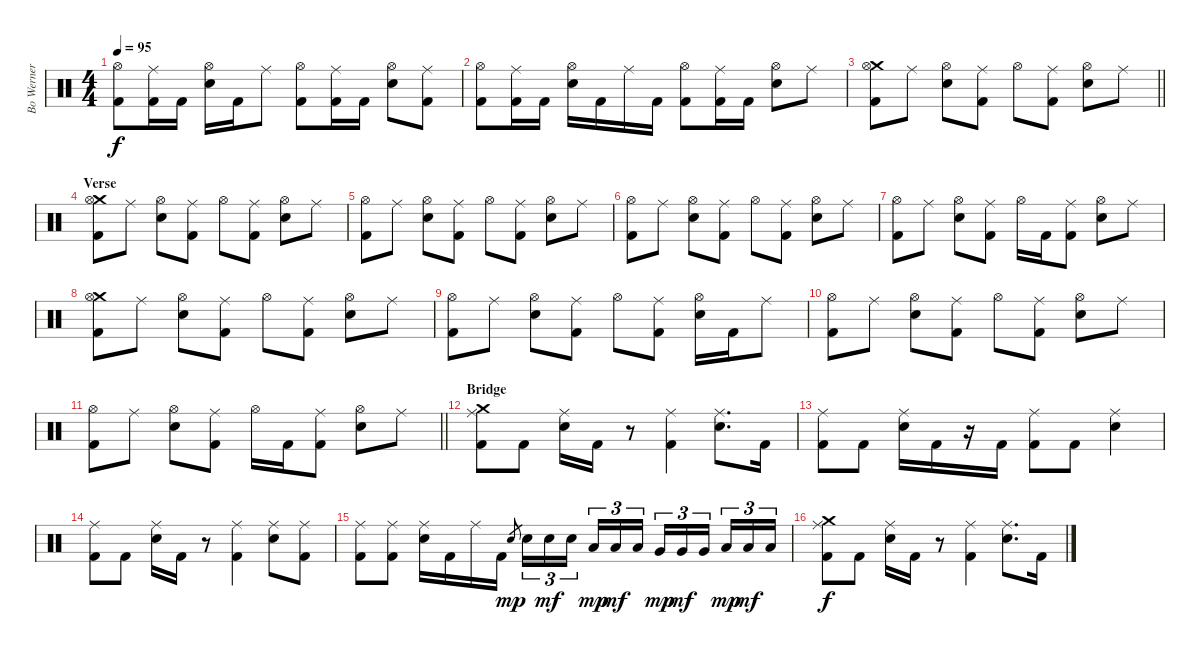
\track ("Bo Werner" "Bo Werner") {instrument percussion}
\staff {score}
\articulation defaults
\ts (4 4)
\tempo 95
\clef neutral
\ks c
("Hi-Hat (open)" "Kick (hit) 2").8{dy f} ("Ride (middle)" "Kick (hit) 2").16 "Kick (hit) 2".16 ("Hi-Hat (open)" "Snare (hit) 2").16 "Kick (hit) 2".16 "Ride (middle)".8 ("Hi-Hat (open)" "Kick (hit) 2").8 ("Ride (middle)" "Kick (hit) 2").16 "Kick (hit) 2".16 ("Hi-Hat (open)" "Snare (hit) 2").8 ("Ride (middle)" "Kick (hit) 2").8 |
("Hi-Hat (open)" "Kick (hit) 2").8 ("Ride (middle)" "Kick (hit) 2").16 "Kick (hit) 2".16 ("Hi-Hat (open)" "Snare (hit) 2").16 "Kick (hit) 2".16 "Ride (middle)".16 "Kick (hit) 2".16 ("Hi-Hat (open)" "Kick (hit) 2").8 ("Ride (middle)" "Kick (hit) 2").16 "Kick (hit) 2".16 ("Hi-Hat (open)" "Snare (hit) 2").8 "Ride (middle)".8 |
\barLineRight lightlight
("Crash medium (hit)" "Hi-Hat (open)" "Kick (hit) 2").8 "Ride (middle)".8 ("Hi-Hat (open)" "Snare (hit) 2").8 ("Ride (middle)" "Kick (hit) 2").8 "Hi-Hat (open)".8 ("Ride (middle)" "Kick (hit) 2").8 ("Hi-Hat (open)" "Snare (hit) 2").8 "Ride (middle)".8 |
\section ("" "Verse")
("Crash medium (hit)" "Hi-Hat (open)" "Kick (hit) 2").8 "Ride (middle)".8 ("Hi-Hat (open)" "Snare (hit) 2").8 ("Ride (middle)" "Kick (hit) 2").8 "Hi-Hat (open)".8 ("Ride (middle)" "Kick (hit) 2").8 ("Hi-Hat (open)" "Snare (hit) 2").8 "Ride (middle)".8 |
("Hi-Hat (open)" "Kick (hit) 2").8 "Ride (middle)".8 ("Hi-Hat (open)" "Snare (hit) 2").8 ("Ride (middle)" "Kick (hit) 2").8 "Hi-Hat (open)".8 ("Ride (middle)" "Kick (hit) 2").8 ("Hi-Hat (open)" "Snare (hit) 2").8 "Ride (middle)".8 |
("Hi-Hat (open)" "Kick (hit) 2").8 "Ride (middle)".8 ("Hi-Hat (open)" "Snare (hit) 2").8 ("Ride (middle)" "Kick (hit) 2").8 "Hi-Hat (open)".8 ("Ride (middle)" "Kick (hit) 2").8 ("Hi-Hat (open)" "Snare (hit) 2").8 "Ride (middle)".8 |
("Hi-Hat (open)" "Kick (hit) 2").8 "Ride (middle)".8 ("Hi-Hat (open)" "Snare (hit) 2").8 ("Ride (middle)" "Kick (hit) 2").8 "Hi-Hat (open)".16 "Kick (hit) 2".16 ("Ride (middle)" "Kick (hit) 2").8 ("Hi-Hat (open)" "Snare (hit) 2").8 "Ride (middle)".8 |
("Crash medium (hit)" "Hi-Hat (open)" "Kick (hit) 2").8 "Ride (middle)".8 ("Hi-Hat (open)" "Snare (hit) 2").8 ("Ride (middle)" "Kick (hit) 2").8 "Hi-Hat (open)".8 ("Ride (middle)" "Kick (hit) 2").8 ("Hi-Hat (open)" "Snare (hit) 2").8 "Ride (middle)".8 |
("Hi-Hat (open)" "Kick (hit) 2").8 "Ride (middle)".8 ("Hi-Hat (open)" "Snare (hit) 2").8 ("Ride (middle)" "Kick (hit) 2").8 "Hi-Hat (open)".8 ("Ride (middle)" "Kick (hit) 2").8 ("Hi-Hat (open)" "Snare (hit) 2").16 "Kick (hit) 2".16 "Ride (middle)".8 |
("Hi-Hat (open)" "Kick (hit) 2").8 "Ride (middle)".8 ("Hi-Hat (open)" "Snare (hit) 2").8 ("Ride (middle)" "Kick (hit) 2").8 "Hi-Hat (open)".8 ("Ride (middle)" "Kick (hit) 2").8 ("Hi-Hat (open)" "Snare (hit) 2").8 "Ride (middle)".8 |
\barLineRight lightlight
("Hi-Hat (open)" "Kick (hit) 2").8 "Ride (middle)".8 ("Hi-Hat (open)" "Snare (hit) 2").8 ("Ride (middle)" "Kick (hit) 2").8 "Hi-Hat (open)".16 "Kick (hit) 2".16 ("Ride (middle)" "Kick (hit) 2").8 ("Hi-Hat (open)" "Snare (hit) 2").8 "Ride (middle)".8 |
\section ("" "Bridge")
("Crash medium (hit)" "Ride (middle)" "Kick (hit) 2").8 "Kick (hit) 2".8 ("Ride (middle)" "Snare (hit) 2").16 "Kick (hit) 2".16 r.8 ("Ride (middle)" "Kick (hit) 2").4 ("Ride (middle)" "Snare (hit) 2").8{d} "Kick (hit) 2".16 |
("Ride (middle)" "Kick (hit) 2").8 "Kick (hit) 2".8 ("Ride (middle)" "Snare (hit) 2").16 "Kick (hit) 2".16 r.16 "Kick (hit) 2".16 ("Ride (middle)" "Kick (hit) 2").8 "Kick (hit) 2".8 ("Ride (middle)" "Snare (hit) 2").4 |
("Ride (middle)" "Kick (hit) 2").8 "Kick (hit) 2".8 ("Ride (middle)" "Snare (hit) 2").16 "Kick (hit) 2".16 r.8 ("Ride (middle)" "Kick (hit) 2").4 ("Ride (middle)" "Snare (hit) 2").8 ("Ride (middle)" "Kick (hit) 2").8 |
("Ride (middle)" "Kick (hit) 2").8 ("Ride (middle)" "Kick (hit) 2").8 ("Ride (middle)" "Snare (hit) 2").16 "Kick (hit) 2".16 "Ride (middle)".16 "Kick (hit) 2".16 "Snare (hit) 2".8{gr dy mp} "Snare (hit) 2".16{tu (3 2)} "Snare (hit) 2".16{tu (3 2) dy mf} "Snare (hit) 2".16{tu (3 2) beam splitsecondary} "Low Tom (hit)".16{tu (3 2) dy mp} "Low Tom (hit)".16{tu (3 2) dy mf} "Low Tom (hit)".16{tu (3 2)} "Very Low Tom (hit)".16{tu (3 2) dy mp} "Very Low Tom (hit)".16{tu (3 2) dy mf} "Very Low Tom (hit)".16{tu (3 2) beam splitsecondary} "Low Floor Tom (hit)".16{tu (3 2) dy mp} "Low Floor Tom (hit)".16{tu (3 2) dy mf} "Low Floor Tom (hit)".16{tu (3 2)} |
("Crash medium (hit)" "Ride (middle)" "Kick (hit) 2").8{dy f} "Kick (hit) 2".8 ("Ride (middle)" "Snare (hit) 2").16 "Kick (hit) 2".16 r.8 ("Ride (middle)" "Kick (hit) 2").4 ("Ride (middle)" "Snare (hit) 2").8{d} "Kick (hit) 2".16
